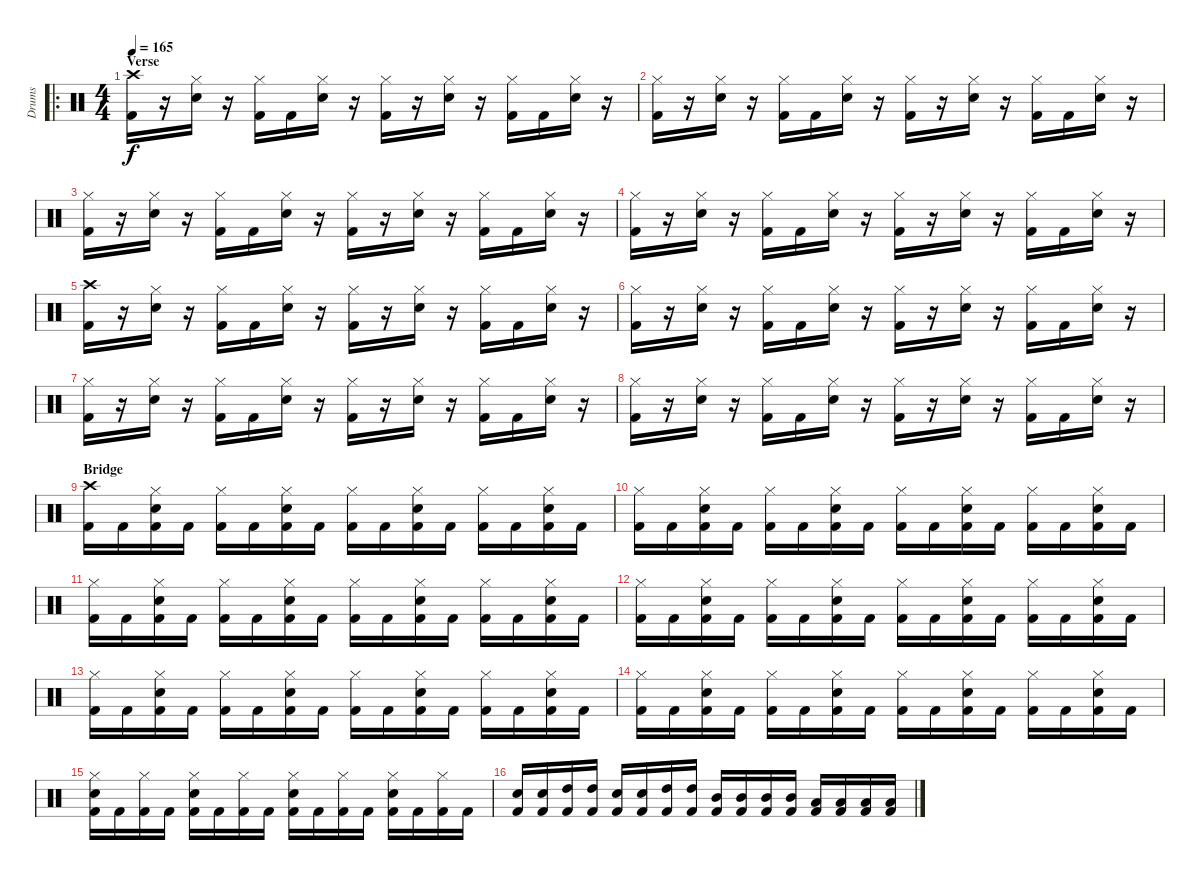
\track ("Drums" "Drums") {instrument percussion}
\staff {score}
\articulation defaults
\ro
\ts (4 4)
\section ("" "Verse")
\tempo 165
\clef neutral
\ks c
("Crash high (hit)" "Kick (hit) 2").16{dy f} r.16 ("Hi-Hat (closed)" "Electric Snare (hit)").16 r.16 ("Hi-Hat (closed)" "Kick (hit) 2").16 "Kick (hit) 2".16 ("Hi-Hat (closed)" "Electric Snare (hit)").16 r.16 ("Hi-Hat (closed)" "Kick (hit) 2").16 r.16 ("Hi-Hat (closed)" "Electric Snare (hit)").16 r.16 ("Hi-Hat (closed)" "Kick (hit) 2").16 "Kick (hit) 2".16 ("Hi-Hat (closed)" "Electric Snare (hit)").16 r.16 |
("Hi-Hat (closed)" "Kick (hit) 2").16 r.16 ("Hi-Hat (closed)" "Electric Snare (hit)").16 r.16 ("Hi-Hat (closed)" "Kick (hit) 2").16 "Kick (hit) 2".16 ("Hi-Hat (closed)" "Electric Snare (hit)").16 r.16 ("Hi-Hat (closed)" "Kick (hit) 2").16 r.16 ("Hi-Hat (closed)" "Electric Snare (hit)").16 r.16 ("Hi-Hat (closed)" "Kick (hit) 2").16 "Kick (hit) 2".16 ("Hi-Hat (closed)" "Electric Snare (hit)").16 r.16 |
("Hi-Hat (closed)" "Kick (hit) 2").16 r.16 ("Hi-Hat (closed)" "Electric Snare (hit)").16 r.16 ("Hi-Hat (closed)" "Kick (hit) 2").16 "Kick (hit) 2".16 ("Hi-Hat (closed)" "Electric Snare (hit)").16 r.16 ("Hi-Hat (closed)" "Kick (hit) 2").16 r.16 ("Hi-Hat (closed)" "Electric Snare (hit)").16 r.16 ("Hi-Hat (closed)" "Kick (hit) 2").16 "Kick (hit) 2".16 ("Hi-Hat (closed)" "Electric Snare (hit)").16 r.16 |
("Hi-Hat (closed)" "Kick (hit) 2").16 r.16 ("Hi-Hat (closed)" "Electric Snare (hit)").16 r.16 ("Hi-Hat (closed)" "Kick (hit) 2").16 "Kick (hit) 2".16 ("Hi-Hat (closed)" "Electric Snare (hit)").16 r.16 ("Hi-Hat (closed)" "Kick (hit) 2").16 r.16 ("Hi-Hat (closed)" "Electric Snare (hit)").16 r.16 ("Hi-Hat (closed)" "Kick (hit) 2").16 "Kick (hit) 2".16 ("Hi-Hat (closed)" "Electric Snare (hit)").16 r.16 |
("Crash high (hit)" "Kick (hit) 2").16 r.16 ("Hi-Hat (closed)" "Electric Snare (hit)").16 r.16 ("Hi-Hat (closed)" "Kick (hit) 2").16 "Kick (hit) 2".16 ("Hi-Hat (closed)" "Electric Snare (hit)").16 r.16 ("Hi-Hat (closed)" "Kick (hit) 2").16 r.16 ("Hi-Hat (closed)" "Electric Snare (hit)").16 r.16 ("Hi-Hat (closed)" "Kick (hit) 2").16 "Kick (hit) 2".16 ("Hi-Hat (closed)" "Electric Snare (hit)").16 r.16 |
("Hi-Hat (closed)" "Kick (hit) 2").16 r.16 ("Hi-Hat (closed)" "Electric Snare (hit)").16 r.16 ("Hi-Hat (closed)" "Kick (hit) 2").16 "Kick (hit) 2".16 ("Hi-Hat (closed)" "Electric Snare (hit)").16 r.16 ("Hi-Hat (closed)" "Kick (hit) 2").16 r.16 ("Hi-Hat (closed)" "Electric Snare (hit)").16 r.16 ("Hi-Hat (closed)" "Kick (hit) 2").16 "Kick (hit) 2".16 ("Hi-Hat (closed)" "Electric Snare (hit)").16 r.16 |
("Hi-Hat (closed)" "Kick (hit) 2").16 r.16 ("Hi-Hat (closed)" "Electric Snare (hit)").16 r.16 ("Hi-Hat (closed)" "Kick (hit) 2").16 "Kick (hit) 2".16 ("Hi-Hat (closed)" "Electric Snare (hit)").16 r.16 ("Hi-Hat (closed)" "Kick (hit) 2").16 r.16 ("Hi-Hat (closed)" "Electric Snare (hit)").16 r.16 ("Hi-Hat (closed)" "Kick (hit) 2").16 "Kick (hit) 2".16 ("Hi-Hat (closed)" "Electric Snare (hit)").16 r.16 |
("Hi-Hat (closed)" "Kick (hit) 2").16 r.16 ("Hi-Hat (closed)" "Electric Snare (hit)").16 r.16 ("Hi-Hat (closed)" "Kick (hit) 2").16 "Kick (hit) 2".16 ("Hi-Hat (closed)" "Electric Snare (hit)").16 r.16 ("Hi-Hat (closed)" "Kick (hit) 2").16 r.16 ("Hi-Hat (closed)" "Electric Snare (hit)").16 r.16 ("Hi-Hat (closed)" "Kick (hit) 2").16 "Kick (hit) 2".16 ("Hi-Hat (closed)" "Electric Snare (hit)").16 r.16 |
\section ("" "Bridge")
("Crash high (hit)" "Kick (hit) 2").16 "Kick (hit) 2".16 ("Hi-Hat (closed)" "Electric Snare (hit)" "Kick (hit) 2").16 "Kick (hit) 2".16 ("Hi-Hat (closed)" "Kick (hit) 2").16 "Kick (hit) 2".16 ("Hi-Hat (closed)" "Electric Snare (hit)" "Kick (hit) 2").16 "Kick (hit) 2".16 ("Hi-Hat (closed)" "Kick (hit) 2").16 "Kick (hit) 2".16 ("Hi-Hat (closed)" "Electric Snare (hit)" "Kick (hit) 2").16 "Kick (hit) 2".16 ("Hi-Hat (closed)" "Kick (hit) 2").16 "Kick (hit) 2".16 ("Hi-Hat (closed)" "Electric Snare (hit)" "Kick (hit) 2").16 "Kick (hit) 2".16 |
("Hi-Hat (closed)" "Kick (hit) 2").16 "Kick (hit) 2".16 ("Hi-Hat (closed)" "Electric Snare (hit)" "Kick (hit) 2").16 "Kick (hit) 2".16 ("Hi-Hat (closed)" "Kick (hit) 2").16 "Kick (hit) 2".16 ("Hi-Hat (closed)" "Electric Snare (hit)" "Kick (hit) 2").16 "Kick (hit) 2".16 ("Hi-Hat (closed)" "Kick (hit) 2").16 "Kick (hit) 2".16 ("Hi-Hat (closed)" "Electric Snare (hit)" "Kick (hit) 2").16 "Kick (hit) 2".16 ("Hi-Hat (closed)" "Kick (hit) 2").16 "Kick (hit) 2".16 ("Hi-Hat (closed)" "Electric Snare (hit)" "Kick (hit) 2").16 "Kick (hit) 2".16 |
("Hi-Hat (closed)" "Kick (hit) 2").16 "Kick (hit) 2".16 ("Hi-Hat (closed)" "Electric Snare (hit)" "Kick (hit) 2").16 "Kick (hit) 2".16 ("Hi-Hat (closed)" "Kick (hit) 2").16 "Kick (hit) 2".16 ("Hi-Hat (closed)" "Electric Snare (hit)" "Kick (hit) 2").16 "Kick (hit) 2".16 ("Hi-Hat (closed)" "Kick (hit) 2").16 "Kick (hit) 2".16 ("Hi-Hat (closed)" "Electric Snare (hit)" "Kick (hit) 2").16 "Kick (hit) 2".16 ("Hi-Hat (closed)" "Kick (hit) 2").16 "Kick (hit) 2".16 ("Hi-Hat (closed)" "Electric Snare (hit)" "Kick (hit) 2").16 "Kick (hit) 2".16 |
("Hi-Hat (closed)" "Kick (hit) 2").16 "Kick (hit) 2".16 ("Hi-Hat (closed)" "Electric Snare (hit)" "Kick (hit) 2").16 "Kick (hit) 2".16 ("Hi-Hat (closed)" "Kick (hit) 2").16 "Kick (hit) 2".16 ("Hi-Hat (closed)" "Electric Snare (hit)" "Kick (hit) 2").16 "Kick (hit) 2".16 ("Hi-Hat (closed)" "Kick (hit) 2").16 "Kick (hit) 2".16 ("Hi-Hat (closed)" "Electric Snare (hit)" "Kick (hit) 2").16 "Kick (hit) 2".16 ("Hi-Hat (closed)" "Kick (hit) 2").16 "Kick (hit) 2".16 ("Hi-Hat (closed)" "Electric Snare (hit)" "Kick (hit) 2").16 "Kick (hit) 2".16 |
("Hi-Hat (closed)" "Kick (hit) 2").16 "Kick (hit) 2".16 ("Hi-Hat (closed)" "Electric Snare (hit)" "Kick (hit) 2").16 "Kick (hit) 2".16 ("Hi-Hat (closed)" "Kick (hit) 2").16 "Kick (hit) 2".16 ("Hi-Hat (closed)" "Electric Snare (hit)" "Kick (hit) 2").16 "Kick (hit) 2".16 ("Hi-Hat (closed)" "Kick (hit) 2").16 "Kick (hit) 2".16 ("Hi-Hat (closed)" "Electric Snare (hit)" "Kick (hit) 2").16 "Kick (hit) 2".16 ("Hi-Hat (closed)" "Kick (hit) 2").16 "Kick (hit) 2".16 ("Hi-Hat (closed)" "Electric Snare (hit)" "Kick (hit) 2").16 "Kick (hit) 2".16 |
("Hi-Hat (closed)" "Kick (hit) 2").16 "Kick (hit) 2".16 ("Hi-Hat (closed)" "Electric Snare (hit)" "Kick (hit) 2").16 "Kick (hit) 2".16 ("Hi-Hat (closed)" "Kick (hit) 2").16 "Kick (hit) 2".16 ("Hi-Hat (closed)" "Electric Snare (hit)" "Kick (hit) 2").16 "Kick (hit) 2".16 ("Hi-Hat (closed)" "Kick (hit) 2").16 "Kick (hit) 2".16 ("Hi-Hat (closed)" "Electric Snare (hit)" "Kick (hit) 2").16 "Kick (hit) 2".16 ("Hi-Hat (closed)" "Kick (hit) 2").16 "Kick (hit) 2".16 ("Hi-Hat (closed)" "Electric Snare (hit)" "Kick (hit) 2").16 "Kick (hit) 2".16 |
("Hi-Hat (closed)" "Electric Snare (hit)" "Kick (hit) 2").16 "Kick (hit) 2".16 ("Hi-Hat (closed)" "Kick (hit) 2").16 "Kick (hit) 2".16 ("Hi-Hat (closed)" "Electric Snare (hit)" "Kick (hit) 2").16 "Kick (hit) 2".16 ("Hi-Hat (closed)" "Kick (hit) 2").16 "Kick (hit) 2".16 ("Hi-Hat (closed)" "Electric Snare (hit)" "Kick (hit) 2").16 "Kick (hit) 2".16 ("Hi-Hat (closed)" "Kick (hit) 2").16 "Kick (hit) 2".16 ("Hi-Hat (closed)" "Electric Snare (hit)" "Kick (hit) 2").16 "Kick (hit) 2".16 ("Hi-Hat (closed)" "Kick (hit) 2").16 "Kick (hit) 2".16 |
("Electric Snare (hit)" "Kick (hit) 2").16 ("Electric Snare (hit)" "Kick (hit) 2").16 ("High Tom (hit)" "Kick (hit) 2").16 ("High Tom (hit)" "Kick (hit) 2").16 ("Electric Snare (hit)" "Kick (hit) 2").16 ("Electric Snare (hit)" "Kick (hit) 2").16 ("High Tom (hit)" "Kick (hit) 2").16 ("High Tom (hit)" "Kick (hit) 2").16 ("Mid Tom (hit)" "Kick (hit) 2").16 ("Mid Tom (hit)" "Kick (hit) 2").16 ("Mid Tom (hit)" "Kick (hit) 2").16 ("Mid Tom (hit)" "Kick (hit) 2").16 ("Low Tom (hit)" "Kick (hit) 2").16 ("Low Tom (hit)" "Kick (hit) 2").16 ("Low Tom (hit)" "Kick (hit) 2").16 ("Low Tom (hit)" "Kick (hit) 2").16
